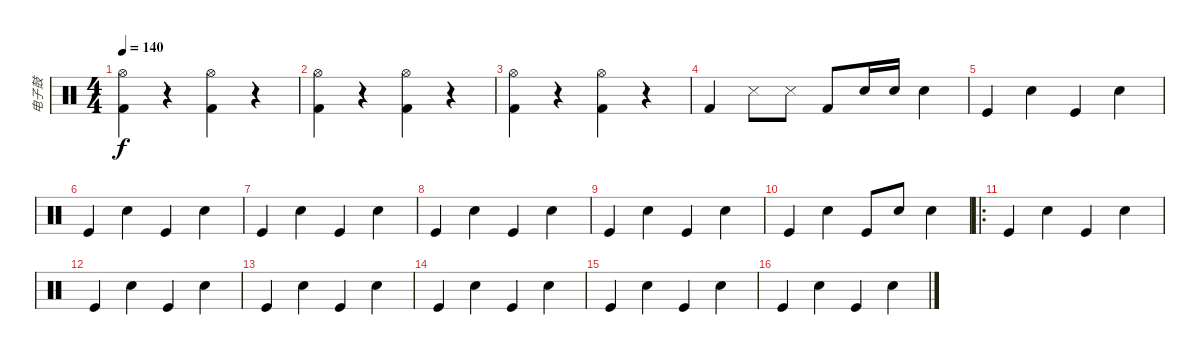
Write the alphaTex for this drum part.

\track ("电子鼓" "电子鼓") {instrument percussion}
\staff {score}
\articulation defaults
\ts (4 4)
\tempo 140
\clef neutral
\ks c
("Hi-Hat (open)" "Kick (hit) 2").4{dy f} r.4 ("Hi-Hat (open)" "Kick (hit) 2").4 r.4 |
("Hi-Hat (open)" "Kick (hit) 2").4 r.4 ("Hi-Hat (open)" "Kick (hit) 2").4 r.4 |
("Hi-Hat (open)" "Kick (hit) 2").4 r.4 ("Hi-Hat (open)" "Kick (hit) 2").4 r.4 |
"Kick (hit) 2".4 "Snare (side stick) 3".8 "Snare (side stick) 3".8 "Kick (hit) 2".8 "Snare (hit) 2".16 "Snare (hit) 2".16 "Electric Snare (hit)".4 |
"Kick (hit)".4 "Snare (hit) 2".4 "Kick (hit)".4 "Snare (hit) 2".4 |
"Kick (hit)".4 "Snare (hit) 2".4 "Kick (hit)".4 "Snare (hit) 2".4 |
"Kick (hit)".4 "Snare (hit) 2".4 "Kick (hit)".4 "Snare (hit) 2".4 |
"Kick (hit)".4 "Snare (hit) 2".4 "Kick (hit)".4 "Snare (hit) 2".4 |
"Kick (hit)".4 "Snare (hit) 2".4 "Kick (hit)".4 "Snare (hit) 2".4 |
"Kick (hit)".4 "Snare (hit) 2".4 "Kick (hit)".8 "Snare (hit) 2".8 "Snare (hit) 2".4 |
\ro "Kick (hit)".4 "Snare (hit) 2".4 "Kick (hit)".4 "Snare (hit) 2".4
|
"Kick (hit)".4 "Snare (hit) 2".4 "Kick (hit)".4 "Snare (hit) 2".4 |
"Kick (hit)".4 "Snare (hit) 2".4 "Kick (hit)".4 "Snare (hit) 2".4 |
"Kick (hit)".4 "Snare (hit) 2".4 "Kick (hit)".4 "Snare (hit) 2".4 |
"Kick (hit)".4 "Snare (hit) 2".4 "Kick (hit)".4 "Snare (hit) 2".4 |
"Kick (hit)".4 "Snare (hit) 2".4 "Kick (hit)".4 "Snare (hit) 2".4
